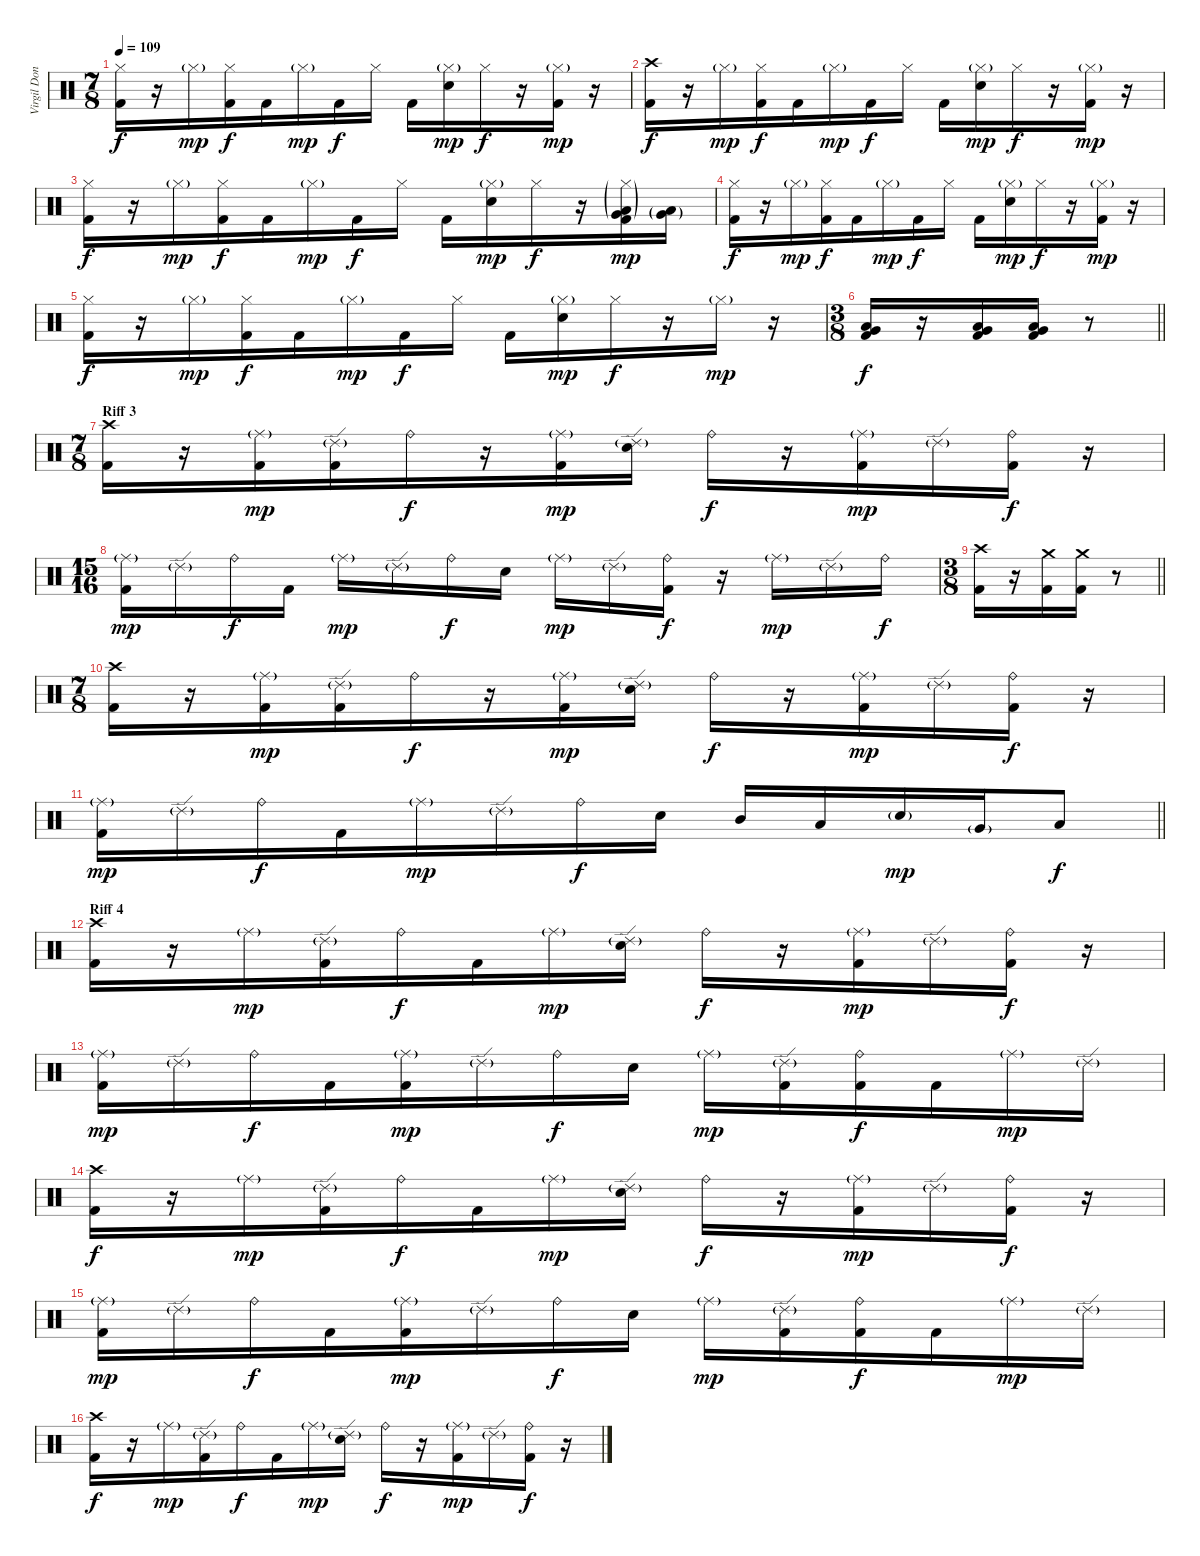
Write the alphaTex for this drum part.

\track ("Virgil Donati" "Virgil Don") {instrument percussion}
\staff {score}
\articulation defaults
\ts (7 8)
\tempo 109
\clef neutral
\ks c
("Hi-Hat (closed)" "Kick (hit) 2").16{dy f} r.16 "Hi-Hat (closed)"{g}.16{dy mp} ("Hi-Hat (closed)" "Kick (hit) 2").16{dy f} "Kick (hit) 2".16 "Hi-Hat (closed)"{g}.16{dy mp} "Kick (hit) 2".16{dy f} "Hi-Hat (closed)".16 "Kick (hit) 2".16 ("Hi-Hat (closed)"{g} "Electric Snare (hit)").16{dy mp} "Hi-Hat (closed)".16{dy f} r.16 ("Hi-Hat (closed)"{g} "Kick (hit) 2").16{dy mp} r.16 |
("Crash high (hit)" "Kick (hit) 2").16{dy f} r.16 "Hi-Hat (closed)"{g}.16{dy mp} ("Hi-Hat (closed)" "Kick (hit) 2").16{dy f} "Kick (hit) 2".16 "Hi-Hat (closed)"{g}.16{dy mp} "Kick (hit) 2".16{dy f} "Hi-Hat (closed)".16 "Kick (hit) 2".16 ("Hi-Hat (closed)"{g} "Electric Snare (hit)").16{dy mp} "Hi-Hat (closed)".16{dy f} r.16 ("Hi-Hat (closed)"{g} "Kick (hit) 2").16{dy mp} r.16 |
("Hi-Hat (closed)" "Kick (hit) 2").16{dy f} r.16 "Hi-Hat (closed)"{g}.16{dy mp} ("Hi-Hat (closed)" "Kick (hit) 2").16{dy f} "Kick (hit) 2".16 "Hi-Hat (closed)"{g}.16{dy mp} "Kick (hit) 2".16{dy f} "Hi-Hat (closed)".16 "Kick (hit) 2".16 ("Hi-Hat (closed)"{g} "Electric Snare (hit)").16{dy mp} "Hi-Hat (closed)".16{dy f} r.16 ("Hi-Hat (closed)"{g} "Very Low Tom (hit)"{g} "Low Floor Tom (hit)"{g} "Kick (hit) 2").16{dy mp} ("Very Low Tom (hit)"{g} "Low Floor Tom (hit)"{g}).16 |
("Hi-Hat (closed)" "Kick (hit) 2").16{dy f} r.16 "Hi-Hat (closed)"{g}.16{dy mp} ("Hi-Hat (closed)" "Kick (hit) 2").16{dy f} "Kick (hit) 2".16 "Hi-Hat (closed)"{g}.16{dy mp} "Kick (hit) 2".16{dy f} "Hi-Hat (closed)".16 "Kick (hit) 2".16 ("Hi-Hat (closed)"{g} "Electric Snare (hit)").16{dy mp} "Hi-Hat (closed)".16{dy f} r.16 ("Hi-Hat (closed)"{g} "Kick (hit) 2").16{dy mp} r.16 |
("Hi-Hat (closed)" "Kick (hit) 2").16{dy f} r.16 "Hi-Hat (closed)"{g}.16{dy mp} ("Hi-Hat (closed)" "Kick (hit) 2").16{dy f} "Kick (hit) 2".16 "Hi-Hat (closed)"{g}.16{dy mp} "Kick (hit) 2".16{dy f} "Hi-Hat (closed)".16 "Kick (hit) 2".16 ("Hi-Hat (closed)"{g} "Electric Snare (hit)").16{dy mp} "Hi-Hat (closed)".16{dy f} r.16 "Hi-Hat (closed)"{g}.16{dy mp} r.16 |
\ts (3 8)
\barLineRight lightlight
("Very Low Tom (hit)" "Low Floor Tom (hit)" "Kick (hit) 2").16{dy f} r.16 ("Very Low Tom (hit)" "Low Floor Tom (hit)" "Kick (hit) 2").16 ("Very Low Tom (hit)" "Low Floor Tom (hit)" "Kick (hit) 2").16 r.8 |
\ts (7 8)
\section ("" "Riff 3")
("Crash high (hit)" "Kick (hit) 2").16 r.16 ("Ride (middle)"{g} "Kick (hit) 2").16{dy mp} ("Ride (edge) 2"{g} "Kick (hit) 2").16 "Ride (bell)".16{dy f} r.16 ("Ride (middle)"{g} "Kick (hit) 2").16{dy mp} ("Ride (edge) 2"{g} "Electric Snare (hit)").16 "Ride (bell)".16{dy f} r.16 ("Ride (middle)"{g} "Kick (hit) 2").16{dy mp} "Ride (edge) 2"{g}.16 ("Ride (bell)" "Kick (hit) 2").16{dy f} r.16 |
\ts (15 16)
("Ride (middle)"{g} "Kick (hit) 2").16{dy mp} "Ride (edge) 2"{g}.16 "Ride (bell)".16{dy f} "Kick (hit) 2".16 "Ride (middle)"{g}.16{dy mp} "Ride (edge) 2"{g}.16 "Ride (bell)".16{dy f} "Electric Snare (hit)".16 "Ride (middle)"{g}.16{dy mp} "Ride (edge) 2"{g}.16 ("Ride (bell)" "Kick (hit) 2").16{dy f} r.16 "Ride (middle)"{g}.16{dy mp} "Ride (edge) 2"{g}.16 "Ride (bell)".16{dy f} |
\ts (3 8)
\barLineRight lightlight
("Crash high (hit)" "Kick (hit) 2").16 r.16 ("Crash medium (hit)" "Kick (hit) 2").16 ("Crash medium (hit)" "Kick (hit) 2").16 r.8 |
\ts (7 8)
("Crash high (hit)" "Kick (hit) 2").16 r.16 ("Ride (middle)"{g} "Kick (hit) 2").16{dy mp} ("Ride (edge) 2"{g} "Kick (hit) 2").16 "Ride (bell)".16{dy f} r.16 ("Ride (middle)"{g} "Kick (hit) 2").16{dy mp} ("Ride (edge) 2"{g} "Electric Snare (hit)").16 "Ride (bell)".16{dy f} r.16 ("Ride (middle)"{g} "Kick (hit) 2").16{dy mp} "Ride (edge) 2"{g}.16 ("Ride (bell)" "Kick (hit) 2").16{dy f} r.16 |
\barLineRight lightlight
("Ride (middle)"{g} "Kick (hit) 2").16{dy mp} "Ride (edge) 2"{g}.16 "Ride (bell)".16{dy f} "Kick (hit) 2".16 "Ride (middle)"{g}.16{dy mp} "Ride (edge) 2"{g}.16 "Ride (bell)".16{dy f} "Electric Snare (hit)".16 "Mid Tom (hit)".16 "Low Tom (hit)".16 "Electric Snare (hit)"{g}.16{dy mp} "Very Low Tom (hit)"{g}.16 "Low Floor Tom (hit)".8{dy f} |
\section ("" "Riff 4")
("Crash high (hit)" "Kick (hit) 2").16 r.16 "Ride (middle)"{g}.16{dy mp} ("Ride (edge) 2"{g} "Kick (hit) 2").16 "Ride (bell)".16{dy f} "Kick (hit) 2".16 "Ride (middle)"{g}.16{dy mp} ("Ride (edge) 2"{g} "Electric Snare (hit)").16 "Ride (bell)".16{dy f} r.16 ("Ride (middle)"{g} "Kick (hit) 2").16{dy mp} "Ride (edge) 2"{g}.16 ("Ride (bell)" "Kick (hit) 2").16{dy f} r.16 |
("Ride (middle)"{g} "Kick (hit) 2").16{dy mp} "Ride (edge) 2"{g}.16 "Ride (bell)".16{dy f} "Kick (hit) 2".16 ("Ride (middle)"{g} "Kick (hit) 2").16{dy mp} "Ride (edge) 2"{g}.16 "Ride (bell)".16{dy f} "Electric Snare (hit)".16 "Ride (middle)"{g}.16{dy mp} ("Ride (edge) 2"{g} "Kick (hit) 2").16 ("Ride (bell)" "Kick (hit) 2").16{dy f} "Kick (hit) 2".16 "Ride (middle)"{g}.16{dy mp} "Ride (edge) 2"{g}.16 |
("Crash high (hit)" "Kick (hit) 2").16{dy f} r.16 "Ride (middle)"{g}.16{dy mp} ("Ride (edge) 2"{g} "Kick (hit) 2").16 "Ride (bell)".16{dy f} "Kick (hit) 2".16 "Ride (middle)"{g}.16{dy mp} ("Ride (edge) 2"{g} "Electric Snare (hit)").16 "Ride (bell)".16{dy f} r.16 ("Ride (middle)"{g} "Kick (hit) 2").16{dy mp} "Ride (edge) 2"{g}.16 ("Ride (bell)" "Kick (hit) 2").16{dy f} r.16 |
("Ride (middle)"{g} "Kick (hit) 2").16{dy mp} "Ride (edge) 2"{g}.16 "Ride (bell)".16{dy f} "Kick (hit) 2".16 ("Ride (middle)"{g} "Kick (hit) 2").16{dy mp} "Ride (edge) 2"{g}.16 "Ride (bell)".16{dy f} "Electric Snare (hit)".16 "Ride (middle)"{g}.16{dy mp} ("Ride (edge) 2"{g} "Kick (hit) 2").16 ("Ride (bell)" "Kick (hit) 2").16{dy f} "Kick (hit) 2".16 "Ride (middle)"{g}.16{dy mp} "Ride (edge) 2"{g}.16 |
("Crash high (hit)" "Kick (hit) 2").16{dy f} r.16 "Ride (middle)"{g}.16{dy mp} ("Ride (edge) 2"{g} "Kick (hit) 2").16 "Ride (bell)".16{dy f} "Kick (hit) 2".16 "Ride (middle)"{g}.16{dy mp} ("Ride (edge) 2"{g} "Electric Snare (hit)").16 "Ride (bell)".16{dy f} r.16 ("Ride (middle)"{g} "Kick (hit) 2").16{dy mp} "Ride (edge) 2"{g}.16 ("Ride (bell)" "Kick (hit) 2").16{dy f} r.16
